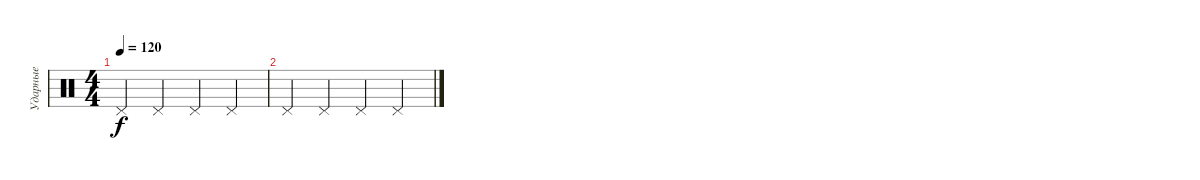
\track ("Ударные" "Ударные") {instrument percussion}
\staff {score}
\articulation defaults
\ts (4 4)
\tempo 120
\clef neutral
\ks c "Pedal Hi-Hat (hit)".4{dy f} "Pedal Hi-Hat (hit)".4 "Pedal Hi-Hat (hit)".4 "Pedal Hi-Hat (hit)".4
|
"Pedal Hi-Hat (hit)".4 "Pedal Hi-Hat (hit)".4 "Pedal Hi-Hat (hit)".4 "Pedal Hi-Hat (hit)".4
